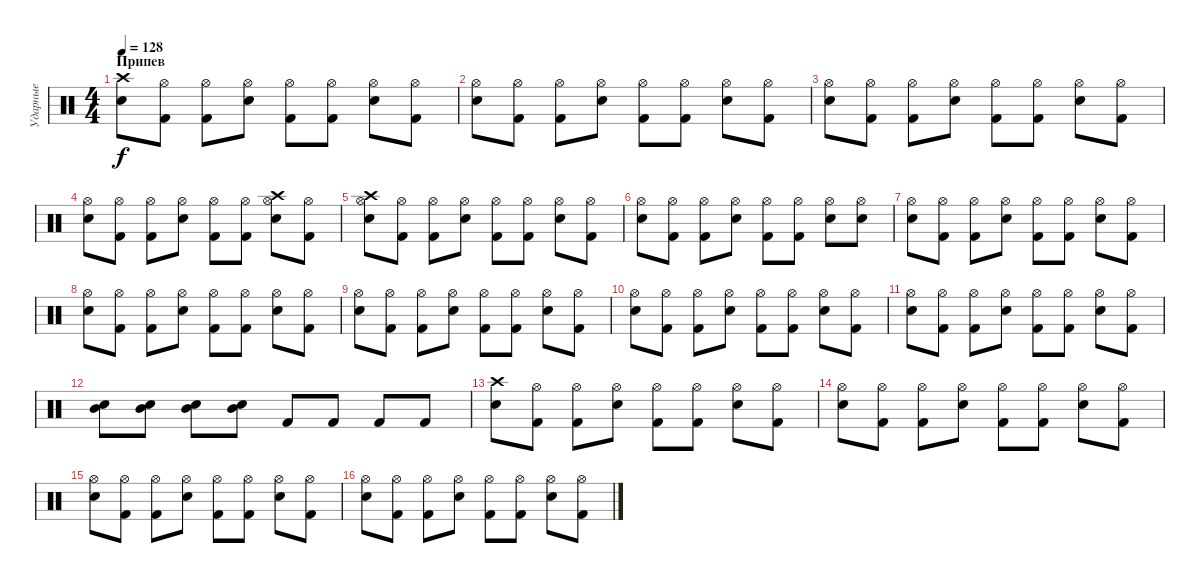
\track ("Ударные" "Ударные") {instrument percussion}
\staff {score}
\articulation defaults
\ts (4 4)
\section ("" "Припев")
\tempo 128
\clef neutral
\ks c
("Crash high (hit)" "Snare (hit) 2").8{dy f} ("Kick (hit) 2" "Hi-Hat (open)").8 ("Kick (hit) 2" "Hi-Hat (open)").8 ("Snare (hit) 2" "Hi-Hat (open)").8 ("Kick (hit) 2" "Hi-Hat (open)").8 ("Kick (hit) 2" "Hi-Hat (open)").8 ("Snare (hit) 2" "Hi-Hat (open)").8 ("Kick (hit) 2" "Hi-Hat (open)").8 |
("Snare (hit) 2" "Hi-Hat (open)").8 ("Kick (hit) 2" "Hi-Hat (open)").8 ("Kick (hit) 2" "Hi-Hat (open)").8 ("Snare (hit) 2" "Hi-Hat (open)").8 ("Kick (hit) 2" "Hi-Hat (open)").8 ("Kick (hit) 2" "Hi-Hat (open)").8 ("Snare (hit) 2" "Hi-Hat (open)").8 ("Kick (hit) 2" "Hi-Hat (open)").8 |
("Snare (hit) 2" "Hi-Hat (open)").8 ("Kick (hit) 2" "Hi-Hat (open)").8 ("Kick (hit) 2" "Hi-Hat (open)").8 ("Snare (hit) 2" "Hi-Hat (open)").8 ("Kick (hit) 2" "Hi-Hat (open)").8 ("Kick (hit) 2" "Hi-Hat (open)").8 ("Snare (hit) 2" "Hi-Hat (open)").8 ("Kick (hit) 2" "Hi-Hat (open)").8 |
("Snare (hit) 2" "Hi-Hat (open)").8 ("Kick (hit) 2" "Hi-Hat (open)").8 ("Kick (hit) 2" "Hi-Hat (open)").8 ("Snare (hit) 2" "Hi-Hat (open)").8 ("Kick (hit) 2" "Hi-Hat (open)").8 ("Kick (hit) 2" "Hi-Hat (open)").8 ("Crash high (hit)" "Snare (hit) 2" "Hi-Hat (open)").8 ("Kick (hit) 2" "Hi-Hat (open)").8 |
("Crash high (hit)" "Snare (hit) 2" "Hi-Hat (open)").8 ("Kick (hit) 2" "Hi-Hat (open)").8 ("Kick (hit) 2" "Hi-Hat (open)").8 ("Snare (hit) 2" "Hi-Hat (open)").8 ("Kick (hit) 2" "Hi-Hat (open)").8 ("Kick (hit) 2" "Hi-Hat (open)").8 ("Snare (hit) 2" "Hi-Hat (open)").8 ("Kick (hit) 2" "Hi-Hat (open)").8 |
("Snare (hit) 2" "Hi-Hat (open)").8 ("Kick (hit) 2" "Hi-Hat (open)").8 ("Kick (hit) 2" "Hi-Hat (open)").8 ("Snare (hit) 2" "Hi-Hat (open)").8 ("Kick (hit) 2" "Hi-Hat (open)").8 ("Kick (hit) 2" "Hi-Hat (open)").8 ("Snare (hit) 2" "Hi-Hat (open)").8 ("Snare (hit) 2" "Hi-Hat (open)").8 |
("Snare (hit) 2" "Hi-Hat (open)").8 ("Kick (hit) 2" "Hi-Hat (open)").8 ("Kick (hit) 2" "Hi-Hat (open)").8 ("Snare (hit) 2" "Hi-Hat (open)").8 ("Kick (hit) 2" "Hi-Hat (open)").8 ("Kick (hit) 2" "Hi-Hat (open)").8 ("Snare (hit) 2" "Hi-Hat (open)").8 ("Kick (hit) 2" "Hi-Hat (open)").8 |
("Snare (hit) 2" "Hi-Hat (open)").8 ("Kick (hit) 2" "Hi-Hat (open)").8 ("Kick (hit) 2" "Hi-Hat (open)").8 ("Snare (hit) 2" "Hi-Hat (open)").8 ("Kick (hit) 2" "Hi-Hat (open)").8 ("Kick (hit) 2" "Hi-Hat (open)").8 ("Snare (hit) 2" "Hi-Hat (open)").8 ("Kick (hit) 2" "Hi-Hat (open)").8 |
("Snare (hit) 2" "Hi-Hat (open)").8 ("Kick (hit) 2" "Hi-Hat (open)").8 ("Kick (hit) 2" "Hi-Hat (open)").8 ("Snare (hit) 2" "Hi-Hat (open)").8 ("Kick (hit) 2" "Hi-Hat (open)").8 ("Kick (hit) 2" "Hi-Hat (open)").8 ("Snare (hit) 2" "Hi-Hat (open)").8 ("Kick (hit) 2" "Hi-Hat (open)").8 |
("Snare (hit) 2" "Hi-Hat (open)").8 ("Kick (hit) 2" "Hi-Hat (open)").8 ("Kick (hit) 2" "Hi-Hat (open)").8 ("Snare (hit) 2" "Hi-Hat (open)").8 ("Kick (hit) 2" "Hi-Hat (open)").8 ("Kick (hit) 2" "Hi-Hat (open)").8 ("Snare (hit) 2" "Hi-Hat (open)").8 ("Kick (hit) 2" "Hi-Hat (open)").8 |
("Snare (hit) 2" "Hi-Hat (open)").8 ("Kick (hit) 2" "Hi-Hat (open)").8 ("Kick (hit) 2" "Hi-Hat (open)").8 ("Snare (hit) 2" "Hi-Hat (open)").8 ("Kick (hit) 2" "Hi-Hat (open)").8 ("Kick (hit) 2" "Hi-Hat (open)").8 ("Snare (hit) 2" "Hi-Hat (open)").8 ("Kick (hit) 2" "Hi-Hat (open)").8 |
("Snare (hit) 2" "Mid Tom (hit)").8 ("Snare (hit) 2" "Mid Tom (hit)").8 ("Snare (hit) 2" "Mid Tom (hit)").8 ("Snare (hit) 2" "Mid Tom (hit)").8 "Kick (hit) 2".8 "Kick (hit) 2".8 "Kick (hit) 2".8 "Kick (hit) 2".8 |
("Crash high (hit)" "Snare (hit) 2").8 ("Kick (hit) 2" "Hi-Hat (open)").8 ("Kick (hit) 2" "Hi-Hat (open)").8 ("Snare (hit) 2" "Hi-Hat (open)").8 ("Kick (hit) 2" "Hi-Hat (open)").8 ("Kick (hit) 2" "Hi-Hat (open)").8 ("Snare (hit) 2" "Hi-Hat (open)").8 ("Kick (hit) 2" "Hi-Hat (open)").8 |
("Snare (hit) 2" "Hi-Hat (open)").8 ("Kick (hit) 2" "Hi-Hat (open)").8 ("Kick (hit) 2" "Hi-Hat (open)").8 ("Snare (hit) 2" "Hi-Hat (open)").8 ("Kick (hit) 2" "Hi-Hat (open)").8 ("Kick (hit) 2" "Hi-Hat (open)").8 ("Snare (hit) 2" "Hi-Hat (open)").8 ("Kick (hit) 2" "Hi-Hat (open)").8 |
("Snare (hit) 2" "Hi-Hat (open)").8 ("Kick (hit) 2" "Hi-Hat (open)").8 ("Kick (hit) 2" "Hi-Hat (open)").8 ("Snare (hit) 2" "Hi-Hat (open)").8 ("Kick (hit) 2" "Hi-Hat (open)").8 ("Kick (hit) 2" "Hi-Hat (open)").8 ("Snare (hit) 2" "Hi-Hat (open)").8 ("Kick (hit) 2" "Hi-Hat (open)").8 |
("Snare (hit) 2" "Hi-Hat (open)").8 ("Kick (hit) 2" "Hi-Hat (open)").8 ("Kick (hit) 2" "Hi-Hat (open)").8 ("Snare (hit) 2" "Hi-Hat (open)").8 ("Kick (hit) 2" "Hi-Hat (open)").8 ("Kick (hit) 2" "Hi-Hat (open)").8 ("Snare (hit) 2" "Hi-Hat (open)").8 ("Kick (hit) 2" "Hi-Hat (open)").8
